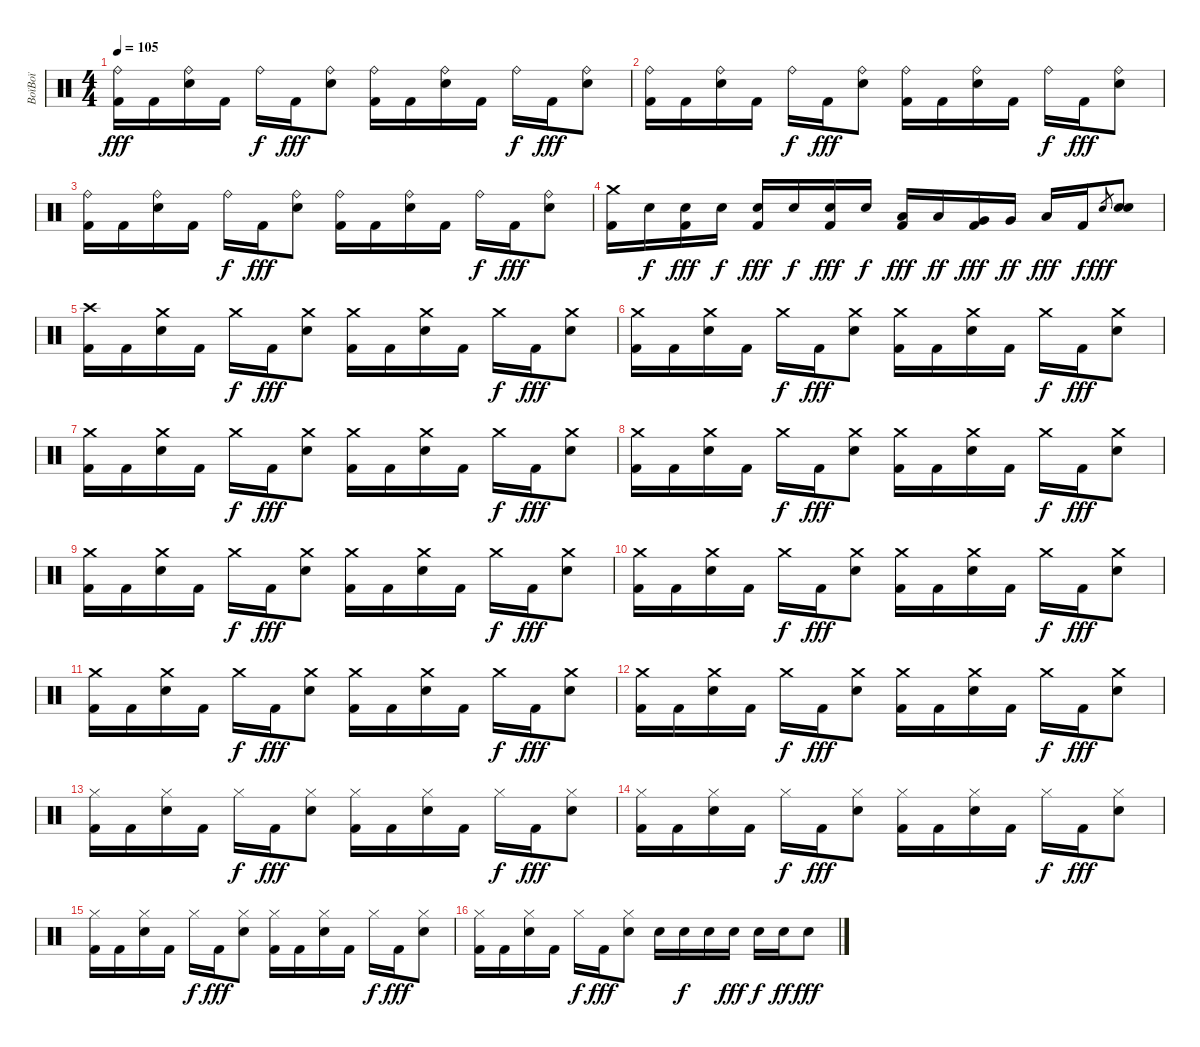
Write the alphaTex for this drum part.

\track ("BoïBoï" "BoïBoï") {instrument percussion}
\staff {score}
\articulation defaults
\ts (4 4)
\tempo 105
\clef neutral
\ks c
("Ride (bell)" "Kick (hit) 2").16{dy fff} "Kick (hit) 2".16 ("Ride (bell)" "Electric Snare (hit)").16 "Kick (hit) 2".16 "Ride (bell)".16{dy f} "Kick (hit) 2".16{dy fff} ("Ride (bell)" "Electric Snare (hit)").8 ("Ride (bell)" "Kick (hit) 2").16 "Kick (hit) 2".16 ("Ride (bell)" "Electric Snare (hit)").16 "Kick (hit) 2".16 "Ride (bell)".16{dy f} "Kick (hit) 2".16{dy fff} ("Ride (bell)" "Electric Snare (hit)").8 |
("Ride (bell)" "Kick (hit) 2").16 "Kick (hit) 2".16 ("Ride (bell)" "Electric Snare (hit)").16 "Kick (hit) 2".16 "Ride (bell)".16{dy f} "Kick (hit) 2".16{dy fff} ("Ride (bell)" "Electric Snare (hit)").8 ("Ride (bell)" "Kick (hit) 2").16 "Kick (hit) 2".16 ("Ride (bell)" "Electric Snare (hit)").16 "Kick (hit) 2".16 "Ride (bell)".16{dy f} "Kick (hit) 2".16{dy fff} ("Ride (bell)" "Electric Snare (hit)").8 |
("Ride (bell)" "Kick (hit) 2").16 "Kick (hit) 2".16 ("Ride (bell)" "Electric Snare (hit)").16 "Kick (hit) 2".16 "Ride (bell)".16{dy f} "Kick (hit) 2".16{dy fff} ("Ride (bell)" "Electric Snare (hit)").8 ("Ride (bell)" "Kick (hit) 2").16 "Kick (hit) 2".16 ("Ride (bell)" "Electric Snare (hit)").16 "Kick (hit) 2".16 "Ride (bell)".16{dy f} "Kick (hit) 2".16{dy fff} ("Ride (bell)" "Electric Snare (hit)").8 |
("Crash medium (hit)" "Kick (hit) 2").16 "Electric Snare (hit)".16{dy f} ("Electric Snare (hit)" "Kick (hit) 2").16{dy fff} "Electric Snare (hit)".16{dy f} ("Electric Snare (hit)" "Kick (hit) 2").16{dy fff} "Electric Snare (hit)".16{dy f} ("Electric Snare (hit)" "Kick (hit) 2").16{dy fff} "Electric Snare (hit)".16{dy f} ("Low Tom (hit)" "Kick (hit) 2").16{dy fff} "Low Tom (hit)".16{dy ff} ("Very Low Tom (hit)" "Kick (hit) 2").16{dy fff} "Very Low Tom (hit)".16{dy ff} "Low Floor Tom (hit)".16{dy fff} "Kick (hit) 2".16{dy f} "Electric Snare (hit)".8{gr dy fff} ("Electric Snare (hit)" "Snare (hit) 2").8 |
("Crash high (hit)" "Kick (hit) 2").16 "Kick (hit) 2".16 ("Crash medium (hit)" "Electric Snare (hit)").16 "Kick (hit) 2".16 "Crash medium (hit)".16{dy f} "Kick (hit) 2".16{dy fff} ("Crash medium (hit)" "Electric Snare (hit)").8 ("Crash medium (hit)" "Kick (hit) 2").16 "Kick (hit) 2".16 ("Crash medium (hit)" "Electric Snare (hit)").16 "Kick (hit) 2".16 "Crash medium (hit)".16{dy f} "Kick (hit) 2".16{dy fff} ("Crash medium (hit)" "Electric Snare (hit)").8 |
("Crash medium (hit)" "Kick (hit) 2").16 "Kick (hit) 2".16 ("Crash medium (hit)" "Electric Snare (hit)").16 "Kick (hit) 2".16 "Crash medium (hit)".16{dy f} "Kick (hit) 2".16{dy fff} ("Crash medium (hit)" "Electric Snare (hit)").8 ("Crash medium (hit)" "Kick (hit) 2").16 "Kick (hit) 2".16 ("Crash medium (hit)" "Electric Snare (hit)").16 "Kick (hit) 2".16 "Crash medium (hit)".16{dy f} "Kick (hit) 2".16{dy fff} ("Crash medium (hit)" "Electric Snare (hit)").8 |
("Crash medium (hit)" "Kick (hit) 2").16 "Kick (hit) 2".16 ("Crash medium (hit)" "Electric Snare (hit)").16 "Kick (hit) 2".16 "Crash medium (hit)".16{dy f} "Kick (hit) 2".16{dy fff} ("Crash medium (hit)" "Electric Snare (hit)").8 ("Crash medium (hit)" "Kick (hit) 2").16 "Kick (hit) 2".16 ("Crash medium (hit)" "Electric Snare (hit)").16 "Kick (hit) 2".16 "Crash medium (hit)".16{dy f} "Kick (hit) 2".16{dy fff} ("Crash medium (hit)" "Electric Snare (hit)").8 |
("Crash medium (hit)" "Kick (hit) 2").16 "Kick (hit) 2".16 ("Crash medium (hit)" "Electric Snare (hit)").16 "Kick (hit) 2".16 "Crash medium (hit)".16{dy f} "Kick (hit) 2".16{dy fff} ("Crash medium (hit)" "Electric Snare (hit)").8 ("Crash medium (hit)" "Kick (hit) 2").16 "Kick (hit) 2".16 ("Crash medium (hit)" "Electric Snare (hit)").16 "Kick (hit) 2".16 "Crash medium (hit)".16{dy f} "Kick (hit) 2".16{dy fff} ("Crash medium (hit)" "Electric Snare (hit)").8 |
("Crash medium (hit)" "Kick (hit) 2").16 "Kick (hit) 2".16 ("Crash medium (hit)" "Electric Snare (hit)").16 "Kick (hit) 2".16 "Crash medium (hit)".16{dy f} "Kick (hit) 2".16{dy fff} ("Crash medium (hit)" "Electric Snare (hit)").8 ("Crash medium (hit)" "Kick (hit) 2").16 "Kick (hit) 2".16 ("Crash medium (hit)" "Electric Snare (hit)").16 "Kick (hit) 2".16 "Crash medium (hit)".16{dy f} "Kick (hit) 2".16{dy fff} ("Crash medium (hit)" "Electric Snare (hit)").8 |
("Crash medium (hit)" "Kick (hit) 2").16 "Kick (hit) 2".16 ("Crash medium (hit)" "Electric Snare (hit)").16 "Kick (hit) 2".16 "Crash medium (hit)".16{dy f} "Kick (hit) 2".16{dy fff} ("Crash medium (hit)" "Electric Snare (hit)").8 ("Crash medium (hit)" "Kick (hit) 2").16 "Kick (hit) 2".16 ("Crash medium (hit)" "Electric Snare (hit)").16 "Kick (hit) 2".16 "Crash medium (hit)".16{dy f} "Kick (hit) 2".16{dy fff} ("Crash medium (hit)" "Electric Snare (hit)").8 |
("Crash medium (hit)" "Kick (hit) 2").16 "Kick (hit) 2".16 ("Crash medium (hit)" "Electric Snare (hit)").16 "Kick (hit) 2".16 "Crash medium (hit)".16{dy f} "Kick (hit) 2".16{dy fff} ("Crash medium (hit)" "Electric Snare (hit)").8 ("Crash medium (hit)" "Kick (hit) 2").16 "Kick (hit) 2".16 ("Crash medium (hit)" "Electric Snare (hit)").16 "Kick (hit) 2".16 "Crash medium (hit)".16{dy f} "Kick (hit) 2".16{dy fff} ("Crash medium (hit)" "Electric Snare (hit)").8 |
("Crash medium (hit)" "Kick (hit) 2").16 "Kick (hit) 2".16 ("Crash medium (hit)" "Electric Snare (hit)").16 "Kick (hit) 2".16 "Crash medium (hit)".16{dy f} "Kick (hit) 2".16{dy fff} ("Crash medium (hit)" "Electric Snare (hit)").8 ("Crash medium (hit)" "Kick (hit) 2").16 "Kick (hit) 2".16 ("Crash medium (hit)" "Electric Snare (hit)").16 "Kick (hit) 2".16 "Crash medium (hit)".16{dy f} "Kick (hit) 2".16{dy fff} ("Crash medium (hit)" "Electric Snare (hit)").8 |
("Hi-Hat (closed)" "Kick (hit) 2").16 "Kick (hit) 2".16 ("Hi-Hat (closed)" "Electric Snare (hit)").16 "Kick (hit) 2".16 "Hi-Hat (closed)".16{dy f} "Kick (hit) 2".16{dy fff} ("Hi-Hat (closed)" "Electric Snare (hit)").8 ("Hi-Hat (closed)" "Kick (hit) 2").16 "Kick (hit) 2".16 ("Hi-Hat (closed)" "Electric Snare (hit)").16 "Kick (hit) 2".16 "Hi-Hat (closed)".16{dy f} "Kick (hit) 2".16{dy fff} ("Hi-Hat (closed)" "Electric Snare (hit)").8 |
("Hi-Hat (closed)" "Kick (hit) 2").16 "Kick (hit) 2".16 ("Hi-Hat (closed)" "Electric Snare (hit)").16 "Kick (hit) 2".16 "Hi-Hat (closed)".16{dy f} "Kick (hit) 2".16{dy fff} ("Hi-Hat (closed)" "Electric Snare (hit)").8 ("Hi-Hat (closed)" "Kick (hit) 2").16 "Kick (hit) 2".16 ("Hi-Hat (closed)" "Electric Snare (hit)").16 "Kick (hit) 2".16 "Hi-Hat (closed)".16{dy f} "Kick (hit) 2".16{dy fff} ("Hi-Hat (closed)" "Electric Snare (hit)").8 |
("Hi-Hat (closed)" "Kick (hit) 2").16 "Kick (hit) 2".16 ("Hi-Hat (closed)" "Electric Snare (hit)").16 "Kick (hit) 2".16 "Hi-Hat (closed)".16{dy f} "Kick (hit) 2".16{dy fff} ("Hi-Hat (closed)" "Electric Snare (hit)").8 ("Hi-Hat (closed)" "Kick (hit) 2").16 "Kick (hit) 2".16 ("Hi-Hat (closed)" "Electric Snare (hit)").16 "Kick (hit) 2".16 "Hi-Hat (closed)".16{dy f} "Kick (hit) 2".16{dy fff} ("Hi-Hat (closed)" "Electric Snare (hit)").8 |
("Hi-Hat (closed)" "Kick (hit) 2").16 "Kick (hit) 2".16 ("Hi-Hat (closed)" "Electric Snare (hit)").16 "Kick (hit) 2".16 "Hi-Hat (closed)".16{dy f} "Kick (hit) 2".16{dy fff} ("Hi-Hat (closed)" "Electric Snare (hit)").8 "Electric Snare (hit)".16 "Electric Snare (hit)".16{dy f} "Electric Snare (hit)".16 "Electric Snare (hit)".16{dy fff} "Electric Snare (hit)".16{dy f} "Electric Snare (hit)".16{dy ff} "Electric Snare (hit)".8{dy fff}
